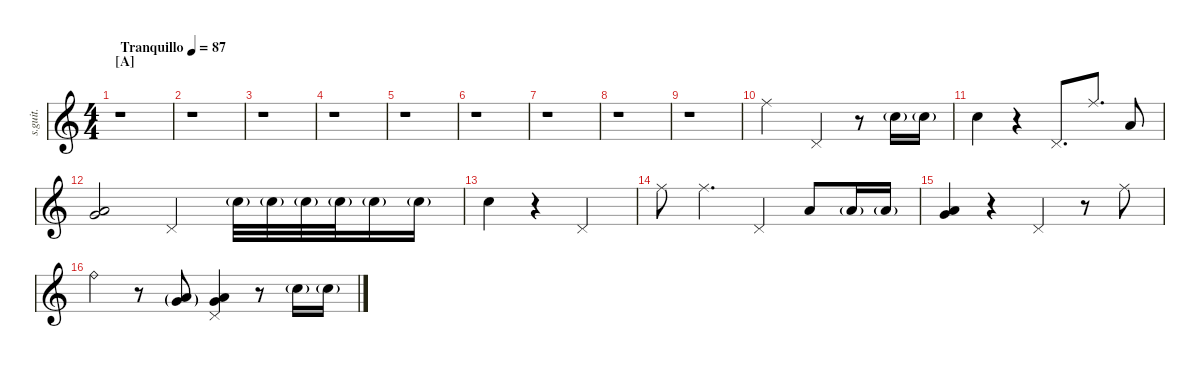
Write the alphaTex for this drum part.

\defaultSystemsLayout 4
\hideDynamics
\bracketExtendMode nobrackets
\track ("" "s.guit.") {instrument percussion}
\staff {score}
\articulation defaults
\ts (4 4)
\beaming (8 2 2 2 2)
\section ("A" "")
\tempo (87 "Tranquillo")
\clef g2
\ks c
r.1{dy f} |
r.1 |
r.1 |
r.1 |
r.1 |
r.1 |
r.1 |
r.1 |
r.1 |
"Ride (middle)".2 "Pedal Hi-Hat (hit)".4 r.8 "Snare (hit) 2"{g}.16 "Snare (hit) 2"{g}.16 |
"Snare (hit) 2".4 r.4 "Pedal Hi-Hat (hit)".8{d} "Ride (middle)".8{d} "Low Tom (hit)".8 |
("Low Tom (hit)" "Very Low Tom (hit)").2 "Pedal Hi-Hat (hit)".4 "Snare (hit) 2"{g}.32 "Snare (hit) 2"{g}.32 "Snare (hit) 2"{g}.32 "Snare (hit) 2"{g}.32 "Snare (hit) 2"{g}.16 "Snare (hit) 2"{g}.16 |
"Snare (hit) 2".4 r.4 "Pedal Hi-Hat (hit)".2 |
"Ride (middle)".8 "Ride (middle)".4{d} "Pedal Hi-Hat (hit)".4 "Low Tom (hit)".8 "Low Tom (hit)"{g}.16 "Low Tom (hit)"{g}.16 |
("Low Tom (hit)" "Very Low Tom (hit)").4 r.4 "Pedal Hi-Hat (hit)".4 r.8 "Ride (middle)".8 |
"Ride (bell)".4 r.8 ("Low Tom (hit)"{g} "Very Low Tom (hit)"{g}).8 ("Low Tom (hit)" "Very Low Tom (hit)" "Pedal Hi-Hat (hit)").4 r.8 "Snare (hit) 2"{g}.16 "Snare (hit) 2"{g}.16
